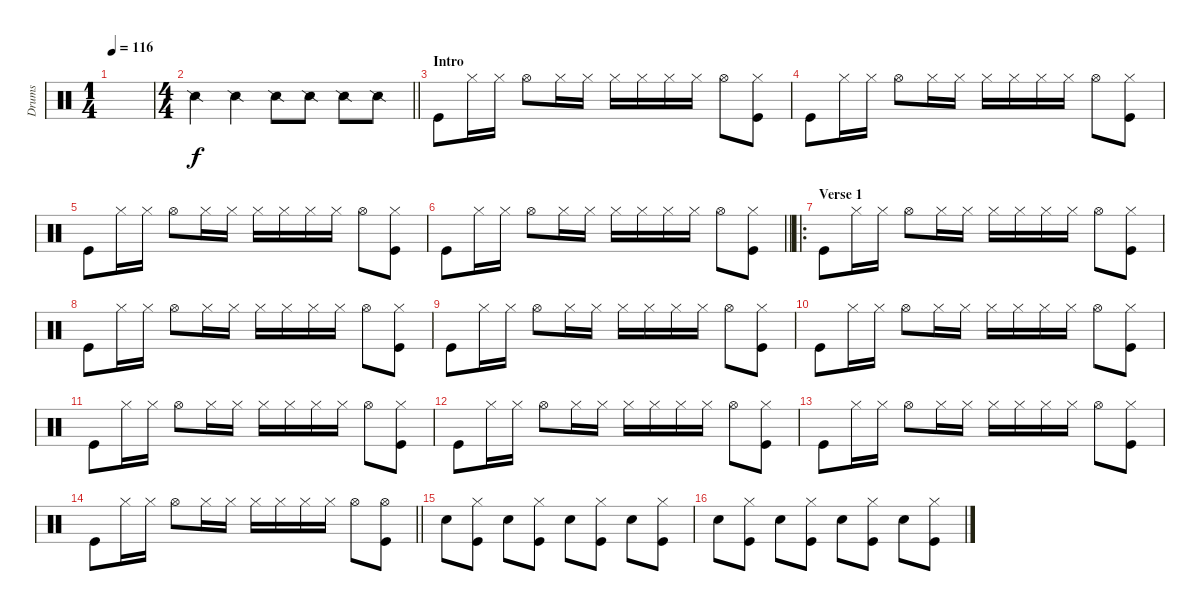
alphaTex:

\track ("Drums" "Drums") {instrument percussion}
\staff {score}
\articulation defaults
\ts (1 4)
\tempo 116
\clef neutral
\ks c
|
\ts (4 4)
\barLineRight lightlight "Snare (side stick) 2".4 "Snare (side stick) 2".4 "Snare (side stick) 2".8 "Snare (side stick) 2".8 "Snare (side stick) 2".8 "Snare (side stick) 2".8
|
\section ("" "Intro")
"Kick (hit)".8 "Hi-Hat (closed)".16 "Hi-Hat (closed)".16 "Hi-Hat (open)".8 "Hi-Hat (closed)".16 "Hi-Hat (closed)".16 "Hi-Hat (closed)".16 "Hi-Hat (closed)".16 "Hi-Hat (closed)".16 "Hi-Hat (closed)".16 "Hi-Hat (open)".8 ("Hi-Hat (closed)" "Kick (hit)").8 |
"Kick (hit)".8 "Hi-Hat (closed)".16 "Hi-Hat (closed)".16 "Hi-Hat (open)".8 "Hi-Hat (closed)".16 "Hi-Hat (closed)".16 "Hi-Hat (closed)".16 "Hi-Hat (closed)".16 "Hi-Hat (closed)".16 "Hi-Hat (closed)".16 "Hi-Hat (open)".8 ("Hi-Hat (closed)" "Kick (hit)").8 |
"Kick (hit)".8 "Hi-Hat (closed)".16 "Hi-Hat (closed)".16 "Hi-Hat (open)".8 "Hi-Hat (closed)".16 "Hi-Hat (closed)".16 "Hi-Hat (closed)".16 "Hi-Hat (closed)".16 "Hi-Hat (closed)".16 "Hi-Hat (closed)".16 "Hi-Hat (open)".8 ("Hi-Hat (closed)" "Kick (hit)").8 |
\barLineRight lightlight "Kick (hit)".8 "Hi-Hat (closed)".16 "Hi-Hat (closed)".16 "Hi-Hat (open)".8 "Hi-Hat (closed)".16 "Hi-Hat (closed)".16 "Hi-Hat (closed)".16 "Hi-Hat (closed)".16 "Hi-Hat (closed)".16 "Hi-Hat (closed)".16 "Hi-Hat (open)".8
("Hi-Hat (closed)" "Kick (hit)").8 |
\ro
\section ("" "Verse 1")
"Kick (hit)".8 "Hi-Hat (closed)".16 "Hi-Hat (closed)".16 "Hi-Hat (open)".8 "Hi-Hat (closed)".16 "Hi-Hat (closed)".16 "Hi-Hat (closed)".16 "Hi-Hat (closed)".16 "Hi-Hat (closed)".16 "Hi-Hat (closed)".16 "Hi-Hat (open)".8 ("Hi-Hat (closed)" "Kick (hit)").8 |
"Kick (hit)".8 "Hi-Hat (closed)".16 "Hi-Hat (closed)".16 "Hi-Hat (open)".8 "Hi-Hat (closed)".16 "Hi-Hat (closed)".16 "Hi-Hat (closed)".16 "Hi-Hat (closed)".16 "Hi-Hat (closed)".16 "Hi-Hat (closed)".16 "Hi-Hat (open)".8 ("Hi-Hat (closed)" "Kick (hit)").8 |
"Kick (hit)".8 "Hi-Hat (closed)".16 "Hi-Hat (closed)".16 "Hi-Hat (open)".8 "Hi-Hat (closed)".16 "Hi-Hat (closed)".16 "Hi-Hat (closed)".16 "Hi-Hat (closed)".16 "Hi-Hat (closed)".16 "Hi-Hat (closed)".16 "Hi-Hat (open)".8 ("Hi-Hat (closed)" "Kick (hit)").8 |
"Kick (hit)".8 "Hi-Hat (closed)".16 "Hi-Hat (closed)".16 "Hi-Hat (open)".8 "Hi-Hat (closed)".16 "Hi-Hat (closed)".16 "Hi-Hat (closed)".16 "Hi-Hat (closed)".16 "Hi-Hat (closed)".16 "Hi-Hat (closed)".16 "Hi-Hat (open)".8 ("Hi-Hat (closed)" "Kick (hit)").8 |
"Kick (hit)".8 "Hi-Hat (closed)".16 "Hi-Hat (closed)".16 "Hi-Hat (open)".8 "Hi-Hat (closed)".16 "Hi-Hat (closed)".16 "Hi-Hat (closed)".16 "Hi-Hat (closed)".16 "Hi-Hat (closed)".16 "Hi-Hat (closed)".16 "Hi-Hat (open)".8 ("Hi-Hat (closed)" "Kick (hit)").8 |
"Kick (hit)".8 "Hi-Hat (closed)".16 "Hi-Hat (closed)".16 "Hi-Hat (open)".8 "Hi-Hat (closed)".16 "Hi-Hat (closed)".16 "Hi-Hat (closed)".16 "Hi-Hat (closed)".16 "Hi-Hat (closed)".16 "Hi-Hat (closed)".16 "Hi-Hat (open)".8 ("Hi-Hat (closed)" "Kick (hit)").8 |
"Kick (hit)".8 "Hi-Hat (closed)".16 "Hi-Hat (closed)".16 "Hi-Hat (open)".8 "Hi-Hat (closed)".16 "Hi-Hat (closed)".16 "Hi-Hat (closed)".16 "Hi-Hat (closed)".16 "Hi-Hat (closed)".16 "Hi-Hat (closed)".16 "Hi-Hat (open)".8 ("Hi-Hat (closed)" "Kick (hit)").8 |
\barLineRight lightlight "Kick (hit)".8 "Hi-Hat (closed)".16 "Hi-Hat (closed)".16 "Hi-Hat (open)".8 "Hi-Hat (closed)".16 "Hi-Hat (closed)".16 "Hi-Hat (closed)".16 "Hi-Hat (closed)".16 "Hi-Hat (closed)".16 "Hi-Hat (closed)".16 "Hi-Hat (open)".8
("Hi-Hat (open)" "Kick (hit)").8 |
"Snare (hit) 2".8 ("Hi-Hat (closed)" "Kick (hit)").8 "Snare (hit) 2".8 ("Hi-Hat (closed)" "Kick (hit)").8 "Snare (hit) 2".8 ("Hi-Hat (closed)" "Kick (hit)").8 "Snare (hit) 2".8 ("Hi-Hat (closed)" "Kick (hit)").8 |
"Snare (hit) 2".8 ("Hi-Hat (closed)" "Kick (hit)").8 "Snare (hit) 2".8 ("Hi-Hat (closed)" "Kick (hit)").8 "Snare (hit) 2".8 ("Hi-Hat (closed)" "Kick (hit)").8 "Snare (hit) 2".8 ("Hi-Hat (closed)" "Kick (hit)").8
